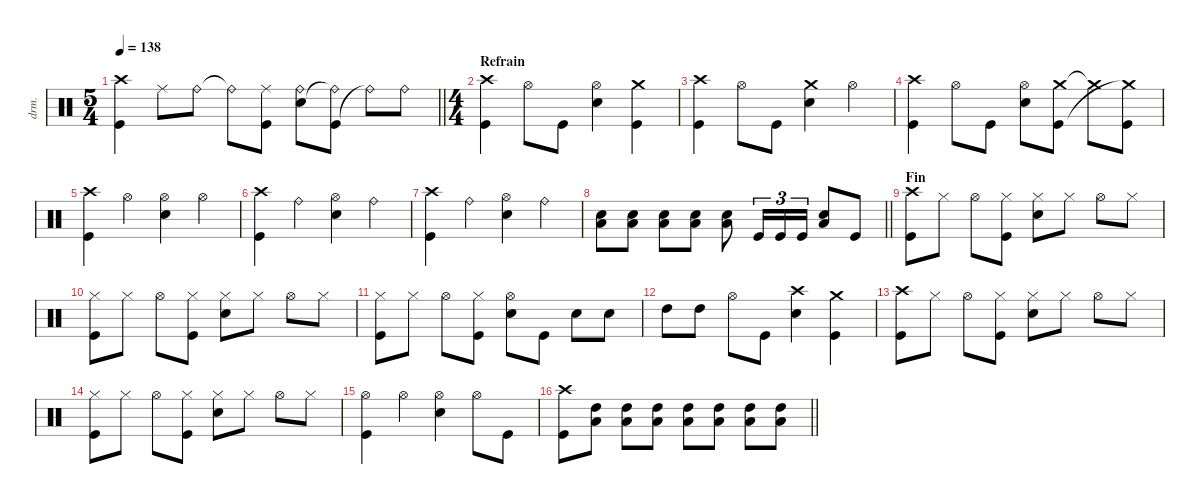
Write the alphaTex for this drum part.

\defaultSystemsLayout 4
\hideDynamics
\bracketExtendMode nobrackets
\track ("Percussions" "drm.") {instrument percussion}
\staff {score}
\articulation defaults
\ts (5 4)
\tempo 138
\clef neutral
\barLineRight lightlight
\ks aminor
("Crash high (hit)" "Kick (hit)").4{dy f beam Down} "Ride (middle)".8{beam Down} "Ride (bell)".8{beam Down} "Ride (bell)"{t}.8{beam Down} ("Ride (middle)" "Kick (hit)").8{beam Down} ("Ride (bell)" "Snare (hit) 2").8{beam Down} ("Kick (hit)" "Ride (bell)"{t}).8{beam Down} "Ride (bell)"{t}.8{beam Down} "Ride (bell)".8{beam Down} |
\ts (4 4)
\beaming (8 2 2 2 2)
\section ("" "Refrain")
("Kick (hit)" "Crash high (hit)").4{beam Down} "Hi-Hat (open)".8{beam Down} "Kick (hit)".8{beam Down} ("Hi-Hat (open)" "Snare (hit) 2").4{beam Down} ("Crash medium (hit)" "Kick (hit)").4{beam Down} |
("Kick (hit)" "Crash high (hit)").4{beam Down} "Hi-Hat (open)".8{beam Down} "Kick (hit)".8{beam Down} ("Crash medium (hit)" "Snare (hit) 2").4{beam Down} "Hi-Hat (open)".4{beam Down} |
("Kick (hit)" "Crash high (hit)").4{beam Down} "Hi-Hat (open)".8{beam Down} "Kick (hit)".8{beam Down} ("Hi-Hat (open)" "Snare (hit) 2").8{beam Down} ("Crash medium (hit)" "Kick (hit)").8{beam Down} "Crash medium (hit)"{t}.8{beam Down} ("Kick (hit)" "Crash medium (hit)"{t}).8{beam Down} |
("Kick (hit)" "Crash high (hit)").4{beam Down} "Hi-Hat (open)".4{beam Down} ("Hi-Hat (open)" "Snare (hit) 2").4{beam Down} "Hi-Hat (open)".4{beam Down} |
("Kick (hit)" "Crash high (hit)").4{beam Down} "Ride (bell)".4{beam Down} ("Hi-Hat (open)" "Snare (hit) 2").4{beam Down} "Ride (bell)".4{beam Down} |
("Kick (hit)" "Crash high (hit)").4{beam Down} "Ride (bell)".4{beam Down} ("Hi-Hat (open)" "Snare (hit) 2").4{beam Down} "Ride (bell)".4{beam Down} |
\barLineRight lightlight
("Snare (hit) 2" "Low Tom (hit)").8{beam Down} ("Snare (hit) 2" "Low Tom (hit)").8{beam Down} ("Snare (hit) 2" "Low Tom (hit)").8{beam Down} ("Snare (hit) 2" "Low Tom (hit)").8{beam Down} ("Snare (hit) 2" "Low Tom (hit)").8{beam Down} "Kick (hit)".16{tu (3 2) beam Up} "Kick (hit)".16{tu (3 2) beam Up} "Kick (hit)".16{tu (3 2) beam Up} ("Snare (hit) 2" "Low Tom (hit)").8{beam Up} "Kick (hit)".8{beam Up} |
\section ("" "Fin")
("Crash high (hit)" "Kick (hit)").8{beam Down} "Hi-Hat (closed)".8{beam Down} "Hi-Hat (open)".8{beam Down} ("Hi-Hat (closed)" "Kick (hit)").8{beam Down} ("Hi-Hat (closed)" "Snare (hit) 2").8{beam Down} "Hi-Hat (closed)".8{beam Down} "Hi-Hat (open)".8{beam Down} "Hi-Hat (closed)".8{beam Down} |
("Hi-Hat (closed)" "Kick (hit)").8{beam Down} "Hi-Hat (closed)".8{beam Down} "Hi-Hat (open)".8{beam Down} ("Hi-Hat (closed)" "Kick (hit)").8{beam Down} ("Hi-Hat (closed)" "Snare (hit) 2").8{beam Down} "Hi-Hat (closed)".8{beam Down} "Hi-Hat (open)".8{beam Down} "Hi-Hat (closed)".8{beam Down} |
("Hi-Hat (closed)" "Kick (hit)").8{beam Down} "Hi-Hat (closed)".8{beam Down} "Hi-Hat (open)".8{beam Down} ("Hi-Hat (closed)" "Kick (hit)").8{beam Down} ("Hi-Hat (open)" "Snare (hit) 2").8{beam Down} "Kick (hit)".8{beam Down} "Snare (hit) 2".8{beam Down} "Snare (hit) 2".8{beam Down} |
"High Tom (hit)".8{beam Down} "High Tom (hit)".8{beam Down} "Hi-Hat (open)".8{beam Down} "Kick (hit)".8{beam Down} ("Crash high (hit)" "Snare (hit) 2").4{beam Down} ("Crash medium (hit)" "Kick (hit)").4{beam Down} |
("Crash high (hit)" "Kick (hit)").8{beam Down} "Hi-Hat (closed)".8{beam Down} "Hi-Hat (open)".8{beam Down} ("Hi-Hat (closed)" "Kick (hit)").8{beam Down} ("Hi-Hat (closed)" "Snare (hit) 2").8{beam Down} "Hi-Hat (closed)".8{beam Down} "Hi-Hat (open)".8{beam Down} "Hi-Hat (closed)".8{beam Down} |
("Hi-Hat (closed)" "Kick (hit)").8{beam Down} "Hi-Hat (closed)".8{beam Down} "Hi-Hat (open)".8{beam Down} ("Hi-Hat (closed)" "Kick (hit)").8{beam Down} ("Hi-Hat (closed)" "Snare (hit) 2").8{beam Down} "Hi-Hat (closed)".8{beam Down} "Hi-Hat (open)".8{beam Down} "Hi-Hat (closed)".8{beam Down} |
("Hi-Hat (open)" "Kick (hit)").4{beam Down} "Hi-Hat (open)".4{beam Down} ("Hi-Hat (open)" "Snare (hit) 2").4{beam Down} "Hi-Hat (open)".8{beam Down} "Kick (hit)".8{beam Down} |
\barLineRight lightlight
("Crash high (hit)" "Kick (hit)").8{beam Down} ("High Tom (hit)" "Low Tom (hit)").8{beam Down} ("High Tom (hit)" "Low Tom (hit)").8{beam Down} ("High Tom (hit)" "Low Tom (hit)").8{beam Down} ("High Tom (hit)" "Low Tom (hit)").8{beam Down} ("High Tom (hit)" "Low Tom (hit)").8{beam Down} ("High Tom (hit)" "Low Tom (hit)").8{beam Down} ("High Tom (hit)" "Low Tom (hit)").8{beam Down}
